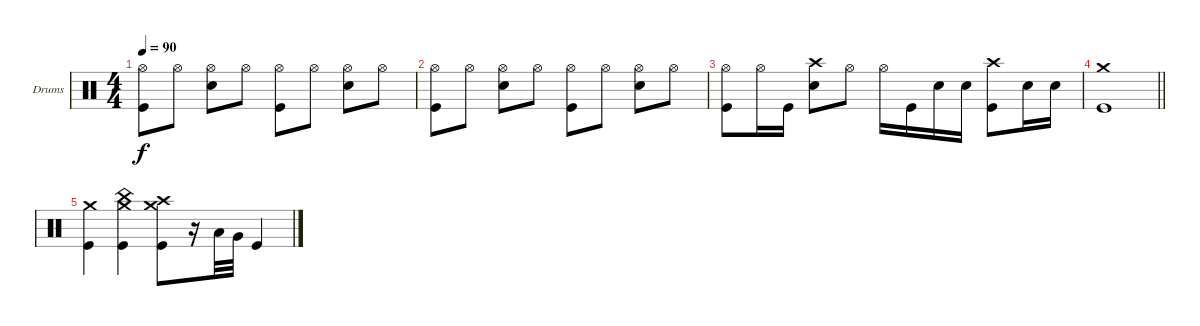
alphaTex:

\bracketExtendMode groupsimilarinstruments
\firstSystemTrackNameOrientation horizontal
\otherSystemsTrackNameOrientation horizontal
\track ("Drumkit" "Drums") {instrument percussion}
\staff {score}
\articulation defaults
\ts (4 4)
\tempo 90
\clef neutral
\ks c
("Hi-Hat (open)" "Kick (hit)").8{dy f} "Hi-Hat (open)".8 ("Hi-Hat (open)" "Snare (hit) 2").8 "Hi-Hat (open)".8 ("Hi-Hat (open)" "Kick (hit)").8 "Hi-Hat (open)".8 ("Hi-Hat (open)" "Snare (hit) 2").8 "Hi-Hat (open)".8 |
("Hi-Hat (open)" "Kick (hit)").8 "Hi-Hat (open)".8 ("Hi-Hat (open)" "Snare (hit) 2").8 "Hi-Hat (open)".8 ("Hi-Hat (open)" "Kick (hit)").8 "Hi-Hat (open)".8 ("Hi-Hat (open)" "Snare (hit) 2").8 "Hi-Hat (open)".8 |
("Hi-Hat (open)" "Kick (hit)").8 "Hi-Hat (open)".16 "Kick (hit)".16 ("Crash high (hit)" "Snare (hit) 2").8 "Hi-Hat (open)".8 "Hi-Hat (open)".16 "Kick (hit)".16 "Snare (hit) 2".16 "Snare (hit) 2".16 ("Crash high (hit)" "Kick (hit)").8 "Snare (hit) 2".16 "Snare (hit) 2".16 |
\barLineRight lightlight
("Crash medium (hit)" "Kick (hit)").1 |
("Crash medium (hit)" "Kick (hit)").4 ("Crash medium (hit)" "Kick (hit)" "China (hit)").4 ("Crash medium (hit)" "Kick (hit)" "Crash high (hit)").8 r.16 "Low Tom (hit)".32 "Very Low Tom (hit)".32 "Kick (hit)".4
